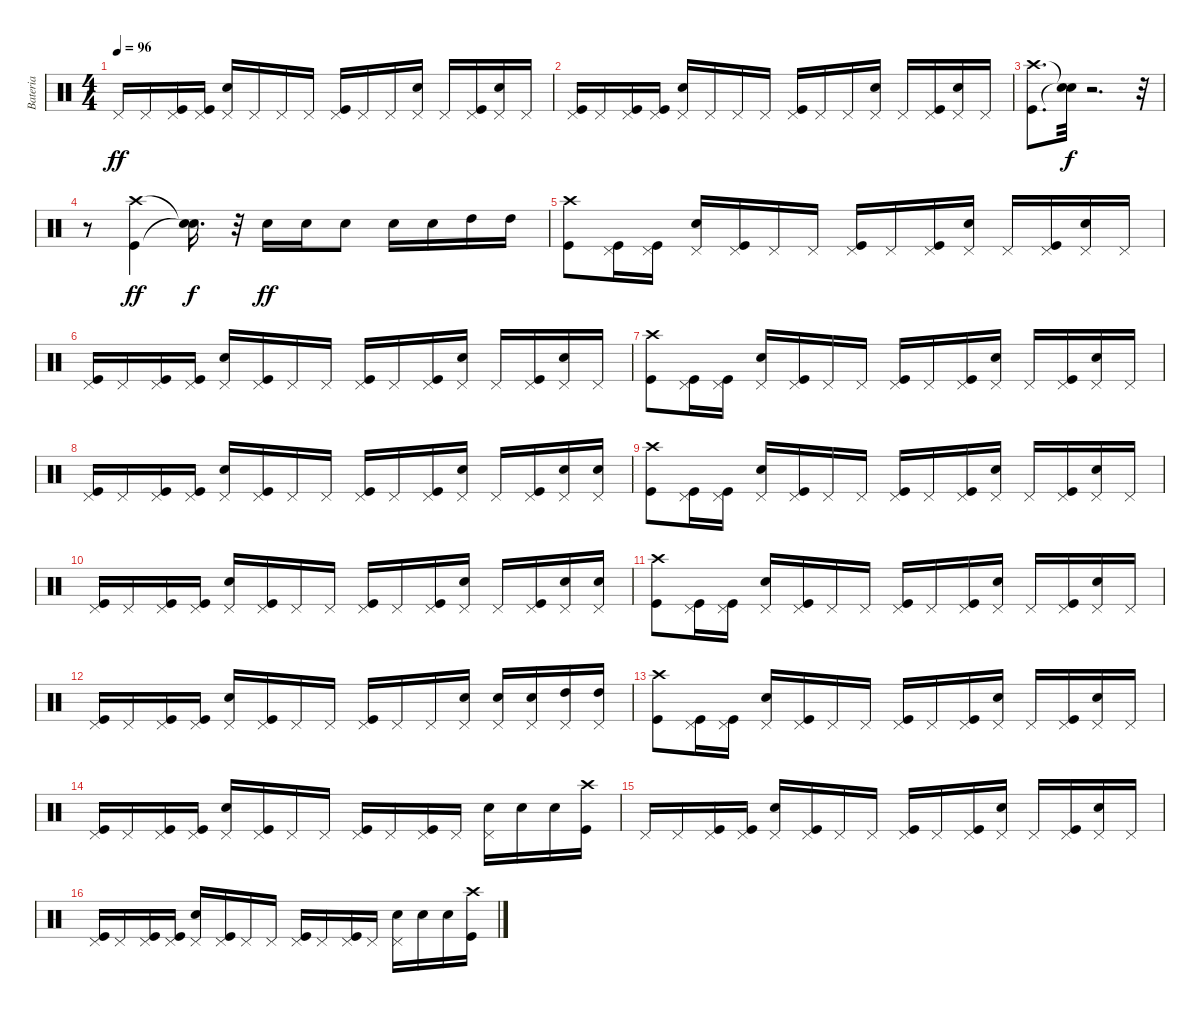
\track ("Bateria" "Bateria") {instrument percussion}
\staff {score}
\articulation defaults
\ts (4 4)
\tempo 96
\clef neutral
\ks c "Pedal Hi-Hat (hit)".16{dy ff} "Pedal Hi-Hat (hit)".16
("Kick (hit)" "Pedal Hi-Hat (hit)").16 ("Kick (hit)" "Pedal Hi-Hat (hit)").16 ("Snare (hit) 2" "Pedal Hi-Hat (hit)").16 "Pedal Hi-Hat (hit)".16 "Pedal Hi-Hat (hit)".16 "Pedal Hi-Hat (hit)".16 ("Kick (hit)" "Pedal Hi-Hat (hit)").16 "Pedal Hi-Hat (hit)".16 "Pedal Hi-Hat (hit)".16 ("Snare (hit) 2" "Pedal Hi-Hat (hit)").16 "Pedal Hi-Hat (hit)".16 ("Kick (hit)" "Pedal Hi-Hat (hit)").16 ("Snare (hit) 2" "Pedal Hi-Hat (hit)").16 "Pedal Hi-Hat (hit)".16 |
("Kick (hit)" "Pedal Hi-Hat (hit)").16 "Pedal Hi-Hat (hit)".16 ("Kick (hit)" "Pedal Hi-Hat (hit)").16 ("Kick (hit)" "Pedal Hi-Hat (hit)").16 ("Snare (hit) 2" "Pedal Hi-Hat (hit)").16 "Pedal Hi-Hat (hit)".16 "Pedal Hi-Hat (hit)".16 "Pedal Hi-Hat (hit)".16 ("Kick (hit)" "Pedal Hi-Hat (hit)").16 "Pedal Hi-Hat (hit)".16 "Pedal Hi-Hat (hit)".16 ("Snare (hit) 2" "Pedal Hi-Hat (hit)").16 "Pedal Hi-Hat (hit)".16 ("Kick (hit)" "Pedal Hi-Hat (hit)").16 ("Snare (hit) 2" "Pedal Hi-Hat (hit)").16 "Pedal Hi-Hat (hit)".16 |
("Kick (hit)" "Crash high (hit)").8{d} ("Snare (hit)"{t} "Snare (hit)"{t}).32{dy f} r.2{d} r.32 |
r.8 ("Kick (hit)" "Crash high (hit)").4{dy ff} ("Snare (hit)"{t} "Snare (hit)"{t}).16{d dy f} r.32 "Snare (hit) 2".16{dy ff} "Snare (hit) 2".16 "Snare (hit) 2".8 "Snare (hit) 2".16 "Snare (hit) 2".16 "High Tom (hit)".16 "High Tom (hit)".16 |
("Kick (hit)" "Crash high (hit)").8 ("Kick (hit)" "Pedal Hi-Hat (hit)").16 ("Kick (hit)" "Pedal Hi-Hat (hit)").16 ("Snare (hit) 2" "Pedal Hi-Hat (hit)").16 ("Kick (hit)" "Pedal Hi-Hat (hit)").16 "Pedal Hi-Hat (hit)".16 "Pedal Hi-Hat (hit)".16 ("Kick (hit)" "Pedal Hi-Hat (hit)").16 "Pedal Hi-Hat (hit)".16 ("Kick (hit)" "Pedal Hi-Hat (hit)").16 ("Snare (hit) 2" "Pedal Hi-Hat (hit)").16 "Pedal Hi-Hat (hit)".16 ("Kick (hit)" "Pedal Hi-Hat (hit)").16 ("Snare (hit) 2" "Pedal Hi-Hat (hit)").16 "Pedal Hi-Hat (hit)".16 |
("Kick (hit)" "Pedal Hi-Hat (hit)").16 "Pedal Hi-Hat (hit)".16 ("Kick (hit)" "Pedal Hi-Hat (hit)").16 ("Kick (hit)" "Pedal Hi-Hat (hit)").16 ("Snare (hit) 2" "Pedal Hi-Hat (hit)").16 ("Kick (hit)" "Pedal Hi-Hat (hit)").16 "Pedal Hi-Hat (hit)".16 "Pedal Hi-Hat (hit)".16 ("Kick (hit)" "Pedal Hi-Hat (hit)").16 "Pedal Hi-Hat (hit)".16 ("Kick (hit)" "Pedal Hi-Hat (hit)").16 ("Snare (hit) 2" "Pedal Hi-Hat (hit)").16 "Pedal Hi-Hat (hit)".16 ("Kick (hit)" "Pedal Hi-Hat (hit)").16 ("Snare (hit) 2" "Pedal Hi-Hat (hit)").16 "Pedal Hi-Hat (hit)".16 |
("Kick (hit)" "Crash high (hit)").8 ("Kick (hit)" "Pedal Hi-Hat (hit)").16 ("Kick (hit)" "Pedal Hi-Hat (hit)").16 ("Snare (hit) 2" "Pedal Hi-Hat (hit)").16 ("Kick (hit)" "Pedal Hi-Hat (hit)").16 "Pedal Hi-Hat (hit)".16 "Pedal Hi-Hat (hit)".16 ("Kick (hit)" "Pedal Hi-Hat (hit)").16 "Pedal Hi-Hat (hit)".16 ("Kick (hit)" "Pedal Hi-Hat (hit)").16 ("Snare (hit) 2" "Pedal Hi-Hat (hit)").16 "Pedal Hi-Hat (hit)".16 ("Kick (hit)" "Pedal Hi-Hat (hit)").16 ("Snare (hit) 2" "Pedal Hi-Hat (hit)").16 "Pedal Hi-Hat (hit)".16 |
("Kick (hit)" "Pedal Hi-Hat (hit)").16 "Pedal Hi-Hat (hit)".16 ("Kick (hit)" "Pedal Hi-Hat (hit)").16 ("Kick (hit)" "Pedal Hi-Hat (hit)").16 ("Snare (hit) 2" "Pedal Hi-Hat (hit)").16 ("Kick (hit)" "Pedal Hi-Hat (hit)").16 "Pedal Hi-Hat (hit)".16 "Pedal Hi-Hat (hit)".16 ("Kick (hit)" "Pedal Hi-Hat (hit)").16 "Pedal Hi-Hat (hit)".16 ("Kick (hit)" "Pedal Hi-Hat (hit)").16 ("Snare (hit) 2" "Pedal Hi-Hat (hit)").16 "Pedal Hi-Hat (hit)".16 ("Kick (hit)" "Pedal Hi-Hat (hit)").16 ("Snare (hit) 2" "Pedal Hi-Hat (hit)").16 ("Snare (hit) 2" "Pedal Hi-Hat (hit)").16 |
("Kick (hit)" "Crash high (hit)").8 ("Kick (hit)" "Pedal Hi-Hat (hit)").16 ("Kick (hit)" "Pedal Hi-Hat (hit)").16 ("Snare (hit) 2" "Pedal Hi-Hat (hit)").16 ("Kick (hit)" "Pedal Hi-Hat (hit)").16 "Pedal Hi-Hat (hit)".16 "Pedal Hi-Hat (hit)".16 ("Kick (hit)" "Pedal Hi-Hat (hit)").16 "Pedal Hi-Hat (hit)".16 ("Kick (hit)" "Pedal Hi-Hat (hit)").16 ("Snare (hit) 2" "Pedal Hi-Hat (hit)").16 "Pedal Hi-Hat (hit)".16 ("Kick (hit)" "Pedal Hi-Hat (hit)").16 ("Snare (hit) 2" "Pedal Hi-Hat (hit)").16 "Pedal Hi-Hat (hit)".16 |
("Kick (hit)" "Pedal Hi-Hat (hit)").16 "Pedal Hi-Hat (hit)".16 ("Kick (hit)" "Pedal Hi-Hat (hit)").16 ("Kick (hit)" "Pedal Hi-Hat (hit)").16 ("Snare (hit) 2" "Pedal Hi-Hat (hit)").16 ("Kick (hit)" "Pedal Hi-Hat (hit)").16 "Pedal Hi-Hat (hit)".16 "Pedal Hi-Hat (hit)".16 ("Kick (hit)" "Pedal Hi-Hat (hit)").16 "Pedal Hi-Hat (hit)".16 ("Kick (hit)" "Pedal Hi-Hat (hit)").16 ("Snare (hit) 2" "Pedal Hi-Hat (hit)").16 "Pedal Hi-Hat (hit)".16 ("Kick (hit)" "Pedal Hi-Hat (hit)").16 ("Snare (hit) 2" "Pedal Hi-Hat (hit)").16 ("Snare (hit) 2" "Pedal Hi-Hat (hit)").16 |
("Kick (hit)" "Crash high (hit)").8 ("Kick (hit)" "Pedal Hi-Hat (hit)").16 ("Kick (hit)" "Pedal Hi-Hat (hit)").16 ("Snare (hit) 2" "Pedal Hi-Hat (hit)").16 ("Kick (hit)" "Pedal Hi-Hat (hit)").16 "Pedal Hi-Hat (hit)".16 "Pedal Hi-Hat (hit)".16 ("Kick (hit)" "Pedal Hi-Hat (hit)").16 "Pedal Hi-Hat (hit)".16 ("Kick (hit)" "Pedal Hi-Hat (hit)").16 ("Snare (hit) 2" "Pedal Hi-Hat (hit)").16 "Pedal Hi-Hat (hit)".16 ("Kick (hit)" "Pedal Hi-Hat (hit)").16 ("Snare (hit) 2" "Pedal Hi-Hat (hit)").16 "Pedal Hi-Hat (hit)".16 |
("Kick (hit)" "Pedal Hi-Hat (hit)").16 "Pedal Hi-Hat (hit)".16 ("Kick (hit)" "Pedal Hi-Hat (hit)").16 ("Kick (hit)" "Pedal Hi-Hat (hit)").16 ("Snare (hit) 2" "Pedal Hi-Hat (hit)").16 ("Kick (hit)" "Pedal Hi-Hat (hit)").16 "Pedal Hi-Hat (hit)".16 "Pedal Hi-Hat (hit)".16 ("Kick (hit)" "Pedal Hi-Hat (hit)").16 "Pedal Hi-Hat (hit)".16 "Pedal Hi-Hat (hit)".16 ("Snare (hit) 2" "Pedal Hi-Hat (hit)").16 ("Snare (hit) 2" "Pedal Hi-Hat (hit)").16 ("Snare (hit) 2" "Pedal Hi-Hat (hit)").16 ("Pedal Hi-Hat (hit)" "High Tom (hit)").16 ("Pedal Hi-Hat (hit)" "High Tom (hit)").16 |
("Kick (hit)" "Crash high (hit)").8 ("Kick (hit)" "Pedal Hi-Hat (hit)").16 ("Kick (hit)" "Pedal Hi-Hat (hit)").16 ("Snare (hit) 2" "Pedal Hi-Hat (hit)").16 ("Kick (hit)" "Pedal Hi-Hat (hit)").16 "Pedal Hi-Hat (hit)".16 "Pedal Hi-Hat (hit)".16 ("Kick (hit)" "Pedal Hi-Hat (hit)").16 "Pedal Hi-Hat (hit)".16 ("Kick (hit)" "Pedal Hi-Hat (hit)").16 ("Snare (hit) 2" "Pedal Hi-Hat (hit)").16 "Pedal Hi-Hat (hit)".16 ("Kick (hit)" "Pedal Hi-Hat (hit)").16 ("Snare (hit) 2" "Pedal Hi-Hat (hit)").16 "Pedal Hi-Hat (hit)".16 |
("Kick (hit)" "Pedal Hi-Hat (hit)").16 "Pedal Hi-Hat (hit)".16 ("Kick (hit)" "Pedal Hi-Hat (hit)").16 ("Kick (hit)" "Pedal Hi-Hat (hit)").16 ("Snare (hit) 2" "Pedal Hi-Hat (hit)").16 ("Kick (hit)" "Pedal Hi-Hat (hit)").16 "Pedal Hi-Hat (hit)".16 "Pedal Hi-Hat (hit)".16 ("Kick (hit)" "Pedal Hi-Hat (hit)").16 "Pedal Hi-Hat (hit)".16 ("Kick (hit)" "Pedal Hi-Hat (hit)").16 "Pedal Hi-Hat (hit)".16 ("Snare (hit) 2" "Pedal Hi-Hat (hit)").16 "Snare (hit) 2".16 "Snare (hit) 2".16 ("Kick (hit)" "Crash high (hit)").16 |
"Pedal Hi-Hat (hit)".16 "Pedal Hi-Hat (hit)".16 ("Kick (hit)" "Pedal Hi-Hat (hit)").16 ("Kick (hit)" "Pedal Hi-Hat (hit)").16 ("Snare (hit) 2" "Pedal Hi-Hat (hit)").16 ("Kick (hit)" "Pedal Hi-Hat (hit)").16 "Pedal Hi-Hat (hit)".16 "Pedal Hi-Hat (hit)".16 ("Kick (hit)" "Pedal Hi-Hat (hit)").16 "Pedal Hi-Hat (hit)".16 ("Kick (hit)" "Pedal Hi-Hat (hit)").16 ("Snare (hit) 2" "Pedal Hi-Hat (hit)").16 "Pedal Hi-Hat (hit)".16 ("Kick (hit)" "Pedal Hi-Hat (hit)").16 ("Snare (hit) 2" "Pedal Hi-Hat (hit)").16 "Pedal Hi-Hat (hit)".16 |
("Kick (hit)" "Pedal Hi-Hat (hit)").16 "Pedal Hi-Hat (hit)".16 ("Kick (hit)" "Pedal Hi-Hat (hit)").16 ("Kick (hit)" "Pedal Hi-Hat (hit)").16 ("Snare (hit) 2" "Pedal Hi-Hat (hit)").16 ("Kick (hit)" "Pedal Hi-Hat (hit)").16 "Pedal Hi-Hat (hit)".16 "Pedal Hi-Hat (hit)".16 ("Kick (hit)" "Pedal Hi-Hat (hit)").16 "Pedal Hi-Hat (hit)".16 ("Kick (hit)" "Pedal Hi-Hat (hit)").16 "Pedal Hi-Hat (hit)".16 ("Snare (hit) 2" "Pedal Hi-Hat (hit)").16 "Snare (hit) 2".16 "Snare (hit) 2".16 ("Kick (hit)" "Crash high (hit)").16
